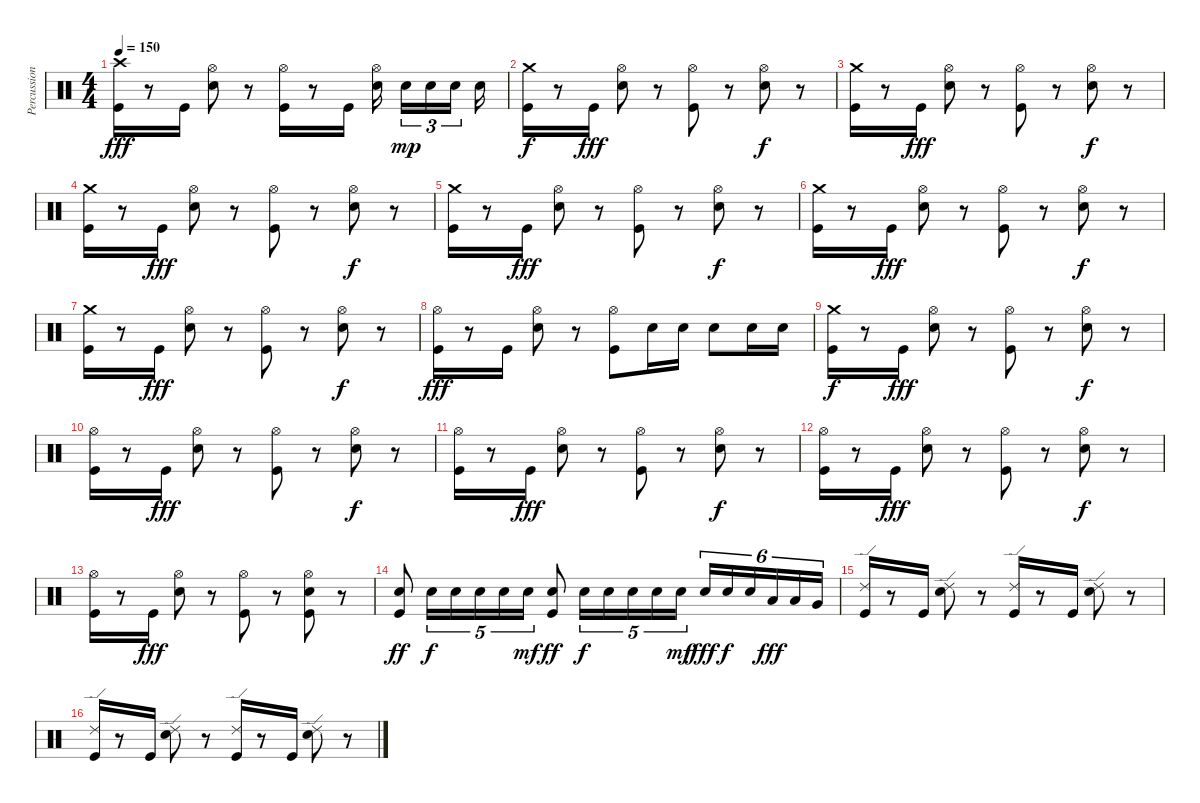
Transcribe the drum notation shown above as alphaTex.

\track ("Percussion" "Percussion") {instrument percussion}
\staff {score}
\articulation defaults
\ts (4 4)
\tempo 150
\clef neutral
\ks c
("Kick (hit)" "Crash high (hit)").16{dy fff} r.8 "Kick (hit)".16 ("Electric Snare (hit)" "Hi-Hat (open)").8 r.8 ("Kick (hit)" "Hi-Hat (open)").16 r.8 "Kick (hit)".16 ("Electric Snare (hit)" "Hi-Hat (open)").16 "Electric Snare (hit)".16{tu (3 2) dy mp} "Electric Snare (hit)".16{tu (3 2)} "Electric Snare (hit)".16{tu (3 2)} "Electric Snare (hit)".16 |
("Kick (hit)" "Crash medium (hit)").16{dy f} r.8 "Kick (hit)".16{dy fff} ("Electric Snare (hit)" "Hi-Hat (open)").8 r.8 ("Kick (hit)" "Hi-Hat (open)").8 r.8 ("Electric Snare (hit)" "Hi-Hat (open)").8{dy f} r.8 |
("Kick (hit)" "Crash medium (hit)").16 r.8 "Kick (hit)".16{dy fff} ("Electric Snare (hit)" "Hi-Hat (open)").8 r.8 ("Kick (hit)" "Hi-Hat (open)").8 r.8 ("Electric Snare (hit)" "Hi-Hat (open)").8{dy f} r.8 |
("Kick (hit)" "Crash medium (hit)").16 r.8 "Kick (hit)".16{dy fff} ("Electric Snare (hit)" "Hi-Hat (open)").8 r.8 ("Kick (hit)" "Hi-Hat (open)").8 r.8 ("Electric Snare (hit)" "Hi-Hat (open)").8{dy f} r.8 |
("Kick (hit)" "Crash medium (hit)").16 r.8 "Kick (hit)".16{dy fff} ("Electric Snare (hit)" "Hi-Hat (open)").8 r.8 ("Kick (hit)" "Hi-Hat (open)").8 r.8 ("Electric Snare (hit)" "Hi-Hat (open)").8{dy f} r.8 |
("Kick (hit)" "Crash medium (hit)").16 r.8 "Kick (hit)".16{dy fff} ("Electric Snare (hit)" "Hi-Hat (open)").8 r.8 ("Kick (hit)" "Hi-Hat (open)").8 r.8 ("Electric Snare (hit)" "Hi-Hat (open)").8{dy f} r.8 |
("Kick (hit)" "Crash medium (hit)").16 r.8 "Kick (hit)".16{dy fff} ("Electric Snare (hit)" "Hi-Hat (open)").8 r.8 ("Kick (hit)" "Hi-Hat (open)").8 r.8 ("Electric Snare (hit)" "Hi-Hat (open)").8{dy f} r.8 |
("Kick (hit)" "Hi-Hat (open)").16{dy fff} r.8 "Kick (hit)".16 ("Electric Snare (hit)" "Hi-Hat (open)").8 r.8 ("Hi-Hat (open)" "Kick (hit)").8 "Electric Snare (hit)".16 "Electric Snare (hit)".16 "Electric Snare (hit)".8 "Electric Snare (hit)".16 "Electric Snare (hit)".16 |
("Kick (hit)" "Crash medium (hit)").16{dy f} r.8 "Kick (hit)".16{dy fff} ("Electric Snare (hit)" "Hi-Hat (open)").8 r.8 ("Kick (hit)" "Hi-Hat (open)").8 r.8 ("Electric Snare (hit)" "Hi-Hat (open)").8{dy f} r.8 |
("Kick (hit)" "Hi-Hat (open)").16 r.8 "Kick (hit)".16{dy fff} ("Electric Snare (hit)" "Hi-Hat (open)").8 r.8 ("Kick (hit)" "Hi-Hat (open)").8 r.8 ("Electric Snare (hit)" "Hi-Hat (open)").8{dy f} r.8 |
("Kick (hit)" "Hi-Hat (open)").16 r.8 "Kick (hit)".16{dy fff} ("Electric Snare (hit)" "Hi-Hat (open)").8 r.8 ("Kick (hit)" "Hi-Hat (open)").8 r.8 ("Electric Snare (hit)" "Hi-Hat (open)").8{dy f} r.8 |
("Kick (hit)" "Hi-Hat (open)").16 r.8 "Kick (hit)".16{dy fff} ("Electric Snare (hit)" "Hi-Hat (open)").8 r.8 ("Kick (hit)" "Hi-Hat (open)").8 r.8 ("Electric Snare (hit)" "Hi-Hat (open)").8{dy f} r.8 |
("Kick (hit)" "Hi-Hat (open)").16 r.8 "Kick (hit)".16{dy fff} ("Electric Snare (hit)" "Hi-Hat (open)").8 r.8 ("Kick (hit)" "Hi-Hat (open)").8 r.8 ("Kick (hit)" "Electric Snare (hit)" "Hi-Hat (open)").8 r.8 |
("Kick (hit)" "Electric Snare (hit)").8{dy ff} "Electric Snare (hit)".16{tu (5 4) dy f} "Electric Snare (hit)".16{tu (5 4)} "Electric Snare (hit)".16{tu (5 4)} "Electric Snare (hit)".16{tu (5 4)} "Electric Snare (hit)".16{tu (5 4) dy mf} ("Kick (hit)" "Electric Snare (hit)").8{dy ff} "Electric Snare (hit)".16{tu (5 4) dy f} "Electric Snare (hit)".16{tu (5 4)} "Electric Snare (hit)".16{tu (5 4)} "Electric Snare (hit)".16{tu (5 4)} "Electric Snare (hit)".16{tu (5 4) dy mf} "Electric Snare (hit)".16{tu (6 4) dy fff} "Electric Snare (hit)".16{tu (6 4) dy f} "Electric Snare (hit)".16{tu (6 4)} "Low Tom (hit)".16{tu (6 4) dy fff} "Low Tom (hit)".16{tu (6 4)} "Very Low Tom (hit)".16{tu (6 4)} |
("Kick (hit)" "Ride (edge) 2").16 r.8 "Kick (hit)".16 ("Electric Snare (hit)" "Ride (edge) 2").8 r.8 ("Kick (hit)" "Ride (edge) 2").16 r.8 "Kick (hit)".16 ("Electric Snare (hit)" "Ride (edge) 2").8 r.8 |
("Kick (hit)" "Ride (edge) 2").16 r.8 "Kick (hit)".16 ("Electric Snare (hit)" "Ride (edge) 2").8 r.8 ("Kick (hit)" "Ride (edge) 2").16 r.8 "Kick (hit)".16 ("Electric Snare (hit)" "Ride (edge) 2").8 r.8
